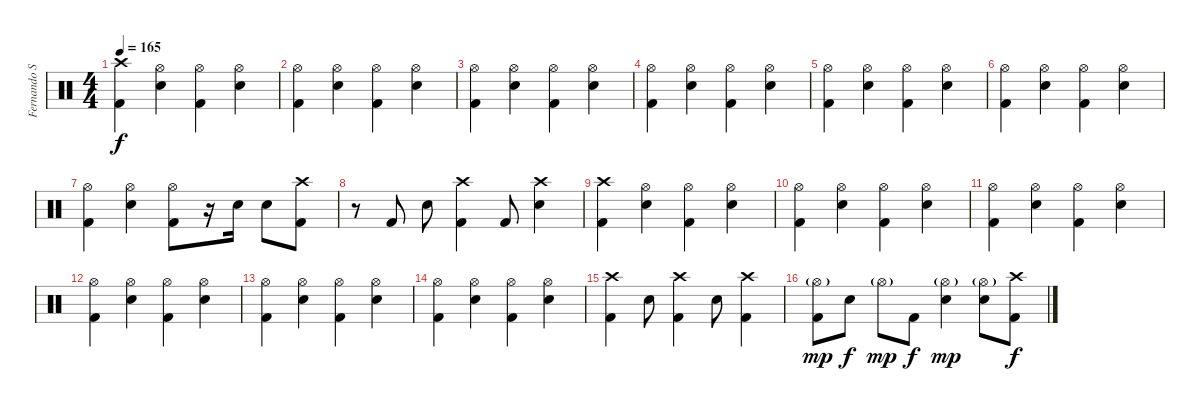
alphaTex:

\track ("Fernando Scarcella" "Fernando S") {instrument percussion}
\staff {score}
\articulation defaults
\ts (4 4)
\tempo 165
\clef neutral
\ks c
("Crash high (hit)" "Kick (hit) 2").4{dy f} ("Hi-Hat (open)" "Snare (hit) 2").4 ("Hi-Hat (open)" "Kick (hit) 2").4 ("Hi-Hat (open)" "Snare (hit) 2").4 |
("Hi-Hat (open)" "Kick (hit) 2").4 ("Hi-Hat (open)" "Snare (hit) 2").4 ("Hi-Hat (open)" "Kick (hit) 2").4 ("Hi-Hat (open)" "Snare (hit) 2").4 |
("Hi-Hat (open)" "Kick (hit) 2").4 ("Hi-Hat (open)" "Snare (hit) 2").4 ("Hi-Hat (open)" "Kick (hit) 2").4 ("Hi-Hat (open)" "Snare (hit) 2").4 |
("Hi-Hat (open)" "Kick (hit) 2").4 ("Hi-Hat (open)" "Snare (hit) 2").4 ("Hi-Hat (open)" "Kick (hit) 2").4 ("Hi-Hat (open)" "Snare (hit) 2").4 |
("Hi-Hat (open)" "Kick (hit) 2").4 ("Hi-Hat (open)" "Snare (hit) 2").4 ("Hi-Hat (open)" "Kick (hit) 2").4 ("Hi-Hat (open)" "Snare (hit) 2").4 |
("Hi-Hat (open)" "Kick (hit) 2").4 ("Hi-Hat (open)" "Snare (hit) 2").4 ("Hi-Hat (open)" "Kick (hit) 2").4 ("Hi-Hat (open)" "Snare (hit) 2").4 |
("Hi-Hat (open)" "Kick (hit) 2").4 ("Hi-Hat (open)" "Snare (hit) 2").4 ("Hi-Hat (open)" "Kick (hit) 2").8 r.16 "Snare (hit) 2".16 "Snare (hit) 2".8 ("Crash high (hit)" "Kick (hit) 2").8 |
r.8 "Kick (hit) 2".8 "Snare (hit) 2".8 ("Crash high (hit)" "Kick (hit) 2").4 "Kick (hit) 2".8 ("Crash high (hit)" "Snare (hit) 2").4 |
("Crash high (hit)" "Kick (hit) 2").4 ("Hi-Hat (open)" "Snare (hit) 2").4 ("Hi-Hat (open)" "Kick (hit) 2").4 ("Hi-Hat (open)" "Snare (hit) 2").4 |
("Hi-Hat (open)" "Kick (hit) 2").4 ("Hi-Hat (open)" "Snare (hit) 2").4 ("Hi-Hat (open)" "Kick (hit) 2").4 ("Hi-Hat (open)" "Snare (hit) 2").4 |
("Hi-Hat (open)" "Kick (hit) 2").4 ("Hi-Hat (open)" "Snare (hit) 2").4 ("Hi-Hat (open)" "Kick (hit) 2").4 ("Hi-Hat (open)" "Snare (hit) 2").4 |
("Hi-Hat (open)" "Kick (hit) 2").4 ("Hi-Hat (open)" "Snare (hit) 2").4 ("Hi-Hat (open)" "Kick (hit) 2").4 ("Hi-Hat (open)" "Snare (hit) 2").4 |
("Hi-Hat (open)" "Kick (hit) 2").4 ("Hi-Hat (open)" "Snare (hit) 2").4 ("Hi-Hat (open)" "Kick (hit) 2").4 ("Hi-Hat (open)" "Snare (hit) 2").4 |
("Hi-Hat (open)" "Kick (hit) 2").4 ("Hi-Hat (open)" "Snare (hit) 2").4 ("Hi-Hat (open)" "Kick (hit) 2").4 ("Hi-Hat (open)" "Snare (hit) 2").4 |
("Crash high (hit)" "Kick (hit) 2").4 "Snare (hit) 2".8 ("Crash high (hit)" "Kick (hit) 2").4 "Snare (hit) 2".8 ("Crash high (hit)" "Kick (hit) 2").4 |
("Hi-Hat (open)"{g} "Kick (hit) 2").8{dy mp} "Snare (hit) 2".8{dy f} "Hi-Hat (open)"{g}.8{dy mp} "Kick (hit) 2".8{dy f} ("Hi-Hat (open)"{g} "Snare (hit) 2").4{dy mp} ("Hi-Hat (open)"{g} "Snare (hit) 2").8 ("Crash high (hit)" "Kick (hit) 2").8{dy f}
